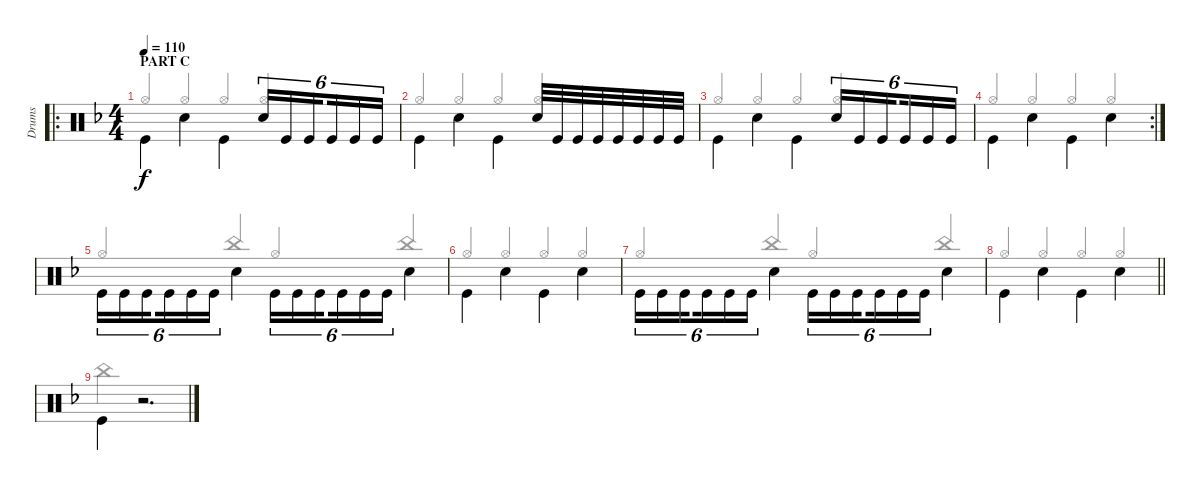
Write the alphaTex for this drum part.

\track ("Drums" "Drums") {instrument percussion}
\staff {score}
\articulation defaults
\voice
\ro
\ts (4 4)
\section ("" "PART C")
\tempo 110
\clef neutral
\ks f "Kick (hit)".4{dy f beam Down} "Snare (hit) 2".4{beam Down} "Kick (hit)".4{beam Down} "Snare (hit) 2".16{tu (6 4)} "Kick (hit)".16{tu (6 4)} "Kick (hit)".16{tu (6 4) beam splitsecondary} "Kick (hit)".16{tu (6 4)} "Kick (hit)".16{tu (6 4)} "Kick (hit)".16{tu (6 4)}
|
"Kick (hit)".4{beam Down} "Snare (hit) 2".4{beam Down} "Kick (hit)".4{beam Down} "Snare (hit) 2".32 "Kick (hit)".32 "Kick (hit)".32 "Kick (hit)".32 "Kick (hit)".32 "Kick (hit)".32 "Kick (hit)".32 "Kick (hit)".32 |
"Kick (hit)".4{beam Down} "Snare (hit) 2".4{beam Down} "Kick (hit)".4{beam Down} "Snare (hit) 2".16{tu (6 4)} "Kick (hit)".16{tu (6 4)} "Kick (hit)".16{tu (6 4) beam splitsecondary} "Kick (hit)".16{tu (6 4)} "Kick (hit)".16{tu (6 4)} "Kick (hit)".16{tu (6 4)} |
\rc 2 "Kick (hit)".4{beam Down} "Snare (hit) 2".4{beam Down} "Kick (hit)".4{beam Down} "Snare (hit) 2".4{beam Down}
|
"Kick (hit)".16{tu (6 4) beam Down} "Kick (hit)".16{tu (6 4) beam Down} "Kick (hit)".16{tu (6 4) beam Down beam splitsecondary} "Kick (hit)".16{tu (6 4) beam Down} "Kick (hit)".16{tu (6 4) beam Down} "Kick (hit)".16{tu (6 4) beam Down} "Snare (hit) 2".4{beam Down} "Kick (hit)".16{tu (6 4) beam Down} "Kick (hit)".16{tu (6 4) beam Down} "Kick (hit)".16{tu (6 4) beam Down beam splitsecondary} "Kick (hit)".16{tu (6 4) beam Down} "Kick (hit)".16{tu (6 4) beam Down} "Kick (hit)".16{tu (6 4) beam Down} "Snare (hit) 2".4{beam Down} |
"Kick (hit)".4{beam Down} "Snare (hit) 2".4{beam Down} "Kick (hit)".4{beam Down} "Snare (hit) 2".4{beam Down} |
"Kick (hit)".16{tu (6 4) beam Down} "Kick (hit)".16{tu (6 4) beam Down} "Kick (hit)".16{tu (6 4) beam Down beam splitsecondary} "Kick (hit)".16{tu (6 4) beam Down} "Kick (hit)".16{tu (6 4) beam Down} "Kick (hit)".16{tu (6 4) beam Down} "Snare (hit) 2".4{beam Down} "Kick (hit)".16{tu (6 4) beam Down} "Kick (hit)".16{tu (6 4) beam Down} "Kick (hit)".16{tu (6 4) beam Down beam splitsecondary} "Kick (hit)".16{tu (6 4) beam Down} "Kick (hit)".16{tu (6 4) beam Down} "Kick (hit)".16{tu (6 4) beam Down} "Snare (hit) 2".4{beam Down} |
\barLineRight lightlight "Kick (hit)".4{beam Down} "Snare (hit) 2".4{beam Down} "Kick (hit)".4{beam Down} "Snare (hit) 2".4{beam Down}
|
"Kick (hit)".4{beam Down} r.2{d}
\voice
\clef neutral
\ottava regular
\simile none
\ks f "Hi-Hat (open)".4{dy f beam Up} "Hi-Hat (open)".4{beam Up} "Hi-Hat (open)".4{beam Up} "Hi-Hat (open)".4{beam Up}
|
"Hi-Hat (open)".4{beam Up} "Hi-Hat (open)".4{beam Up} "Hi-Hat (open)".4{beam Up} "Hi-Hat (open)".4{beam Up} |
"Hi-Hat (open)".4{beam Up} "Hi-Hat (open)".4{beam Up} "Hi-Hat (open)".4{beam Up} "Hi-Hat (open)".4{beam Up} |
"Hi-Hat (open)".4{beam Up} "Hi-Hat (open)".4{beam Up} "Hi-Hat (open)".4{beam Up} "Hi-Hat (open)".4{beam Up} |
"Hi-Hat (open)".4{beam Up} "China (hit)".4{beam Up} "Hi-Hat (open)".4{beam Up} "China (hit)".4{beam Up} |
"Hi-Hat (open)".4{beam Up} "Hi-Hat (open)".4{beam Up} "Hi-Hat (open)".4{beam Up} "Hi-Hat (open)".4{beam Up} |
"Hi-Hat (open)".4{beam Up} "China (hit)".4{beam Up} "Hi-Hat (open)".4{beam Up} "China (hit)".4{beam Up} |
\barLineRight lightlight "Hi-Hat (open)".4{beam Up} "Hi-Hat (open)".4{beam Up} "Hi-Hat (open)".4{beam Up} "Hi-Hat (open)".4{beam Up}
|
"China (hit)".4 r.2{d}
